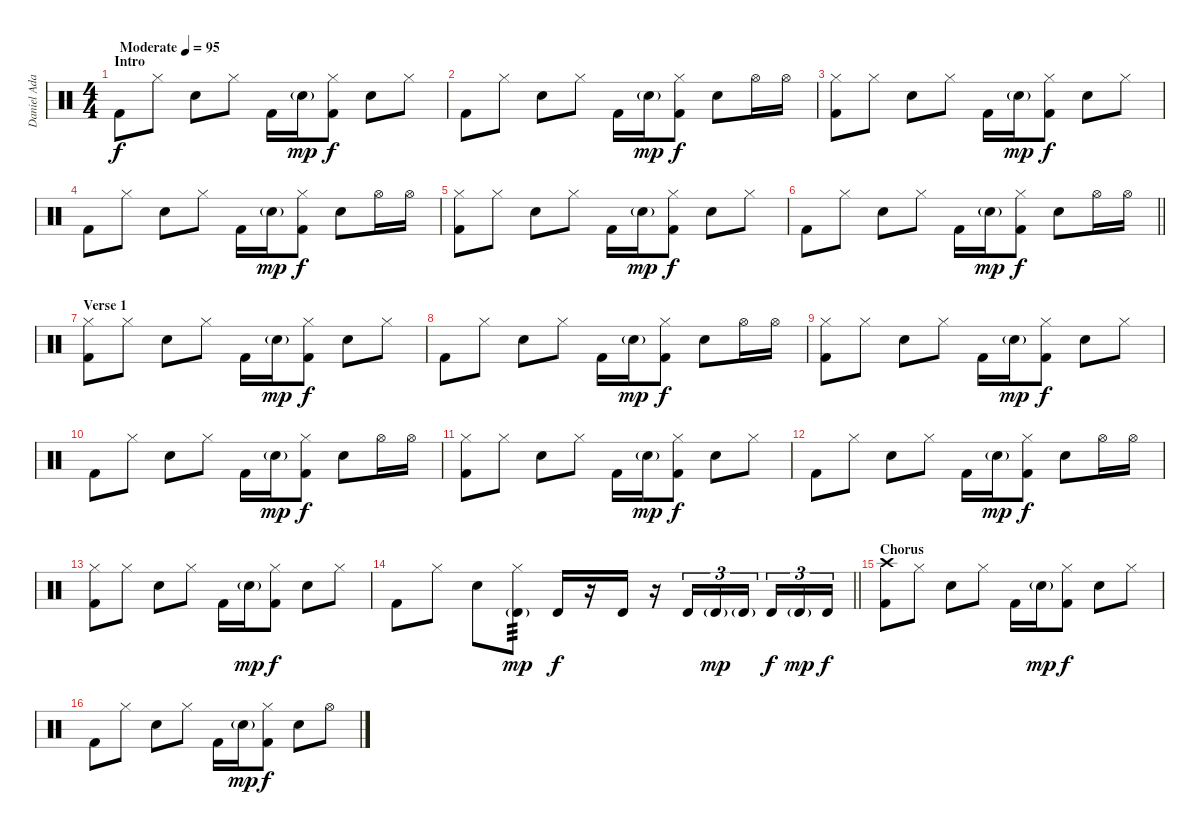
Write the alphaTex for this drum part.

\track ("Daniel Adair" "Daniel Ada") {instrument percussion}
\staff {score}
\articulation defaults
\ts (4 4)
\section ("" "Intro")
\tempo (95 "Moderate")
\clef neutral
\ks c "Kick (hit) 2".8{dy f} "Hi-Hat (closed)".8 "Electric Snare (hit)".8 "Hi-Hat (closed)".8 "Kick (hit) 2".16 "Electric Snare (hit)"{g}.16{dy mp}
("Hi-Hat (closed)" "Kick (hit) 2").8{dy f} "Electric Snare (hit)".8 "Hi-Hat (closed)".8 |
"Kick (hit) 2".8 "Hi-Hat (closed)".8 "Electric Snare (hit)".8 "Hi-Hat (closed)".8 "Kick (hit) 2".16 "Electric Snare (hit)"{g}.16{dy mp} ("Hi-Hat (closed)" "Kick (hit) 2").8{dy f} "Electric Snare (hit)".8 "Hi-Hat (open)".16 "Hi-Hat (open)".16 |
("Hi-Hat (closed)" "Kick (hit) 2").8 "Hi-Hat (closed)".8 "Electric Snare (hit)".8 "Hi-Hat (closed)".8 "Kick (hit) 2".16 "Electric Snare (hit)"{g}.16{dy mp} ("Hi-Hat (closed)" "Kick (hit) 2").8{dy f} "Electric Snare (hit)".8 "Hi-Hat (closed)".8 |
"Kick (hit) 2".8 "Hi-Hat (closed)".8 "Electric Snare (hit)".8 "Hi-Hat (closed)".8 "Kick (hit) 2".16 "Electric Snare (hit)"{g}.16{dy mp} ("Hi-Hat (closed)" "Kick (hit) 2").8{dy f} "Electric Snare (hit)".8 "Hi-Hat (open)".16 "Hi-Hat (open)".16 |
("Hi-Hat (closed)" "Kick (hit) 2").8 "Hi-Hat (closed)".8 "Electric Snare (hit)".8 "Hi-Hat (closed)".8 "Kick (hit) 2".16 "Electric Snare (hit)"{g}.16{dy mp} ("Hi-Hat (closed)" "Kick (hit) 2").8{dy f} "Electric Snare (hit)".8 "Hi-Hat (closed)".8 |
\barLineRight lightlight "Kick (hit) 2".8 "Hi-Hat (closed)".8 "Electric Snare (hit)".8 "Hi-Hat (closed)".8 "Kick (hit) 2".16 "Electric Snare (hit)"{g}.16{dy mp}
("Hi-Hat (closed)" "Kick (hit) 2").8{dy f} "Electric Snare (hit)".8 "Hi-Hat (open)".16 "Hi-Hat (open)".16 |
\section ("" "Verse 1")
("Hi-Hat (closed)" "Kick (hit) 2").8 "Hi-Hat (closed)".8 "Electric Snare (hit)".8 "Hi-Hat (closed)".8 "Kick (hit) 2".16 "Electric Snare (hit)"{g}.16{dy mp} ("Hi-Hat (closed)" "Kick (hit) 2").8{dy f} "Electric Snare (hit)".8 "Hi-Hat (closed)".8 |
"Kick (hit) 2".8 "Hi-Hat (closed)".8 "Electric Snare (hit)".8 "Hi-Hat (closed)".8 "Kick (hit) 2".16 "Electric Snare (hit)"{g}.16{dy mp} ("Hi-Hat (closed)" "Kick (hit) 2").8{dy f} "Electric Snare (hit)".8 "Hi-Hat (open)".16 "Hi-Hat (open)".16 |
("Hi-Hat (closed)" "Kick (hit) 2").8 "Hi-Hat (closed)".8 "Electric Snare (hit)".8 "Hi-Hat (closed)".8 "Kick (hit) 2".16 "Electric Snare (hit)"{g}.16{dy mp} ("Hi-Hat (closed)" "Kick (hit) 2").8{dy f} "Electric Snare (hit)".8 "Hi-Hat (closed)".8 |
"Kick (hit) 2".8 "Hi-Hat (closed)".8 "Electric Snare (hit)".8 "Hi-Hat (closed)".8 "Kick (hit) 2".16 "Electric Snare (hit)"{g}.16{dy mp} ("Hi-Hat (closed)" "Kick (hit) 2").8{dy f} "Electric Snare (hit)".8 "Hi-Hat (open)".16 "Hi-Hat (open)".16 |
("Hi-Hat (closed)" "Kick (hit) 2").8 "Hi-Hat (closed)".8 "Electric Snare (hit)".8 "Hi-Hat (closed)".8 "Kick (hit) 2".16 "Electric Snare (hit)"{g}.16{dy mp} ("Hi-Hat (closed)" "Kick (hit) 2").8{dy f} "Electric Snare (hit)".8 "Hi-Hat (closed)".8 |
"Kick (hit) 2".8 "Hi-Hat (closed)".8 "Electric Snare (hit)".8 "Hi-Hat (closed)".8 "Kick (hit) 2".16 "Electric Snare (hit)"{g}.16{dy mp} ("Hi-Hat (closed)" "Kick (hit) 2").8{dy f} "Electric Snare (hit)".8 "Hi-Hat (open)".16 "Hi-Hat (open)".16 |
("Hi-Hat (closed)" "Kick (hit) 2").8 "Hi-Hat (closed)".8 "Electric Snare (hit)".8 "Hi-Hat (closed)".8 "Kick (hit) 2".16 "Electric Snare (hit)"{g}.16{dy mp} ("Hi-Hat (closed)" "Kick (hit) 2").8{dy f} "Electric Snare (hit)".8 "Hi-Hat (closed)".8 |
\barLineRight lightlight "Kick (hit) 2".8 "Hi-Hat (closed)".8 "Electric Snare (hit)".8
("Timbale high (hit)"{g} "Hi-Hat (closed)").8{tp 3 dy mp} "Timbale high (hit)".16{dy f} r.16 "Timbale high (hit)".16 r.16 "Timbale high (hit)".16{tu (3 2)} "Timbale high (hit)"{g}.16{tu (3 2) dy mp} "Timbale high (hit)"{g}.16{tu (3 2) beam splitsecondary} "Timbale high (hit)".16{tu (3 2) dy f} "Timbale high (hit)"{g}.16{tu (3 2) dy mp} "Timbale high (hit)".16{tu (3 2) dy f} |
\section ("" "Chorus")
("Crash high (hit)" "Kick (hit) 2").8 "Hi-Hat (closed)".8 "Electric Snare (hit)".8 "Hi-Hat (closed)".8 "Kick (hit) 2".16 "Electric Snare (hit)"{g}.16{dy mp} ("Hi-Hat (closed)" "Kick (hit) 2").8{dy f} "Electric Snare (hit)".8 "Hi-Hat (closed)".8 |
"Kick (hit) 2".8 "Hi-Hat (closed)".8 "Electric Snare (hit)".8 "Hi-Hat (closed)".8 "Kick (hit) 2".16 "Electric Snare (hit)"{g}.16{dy mp} ("Hi-Hat (closed)" "Kick (hit) 2").8{dy f} "Electric Snare (hit)".8 "Hi-Hat (open)".8
